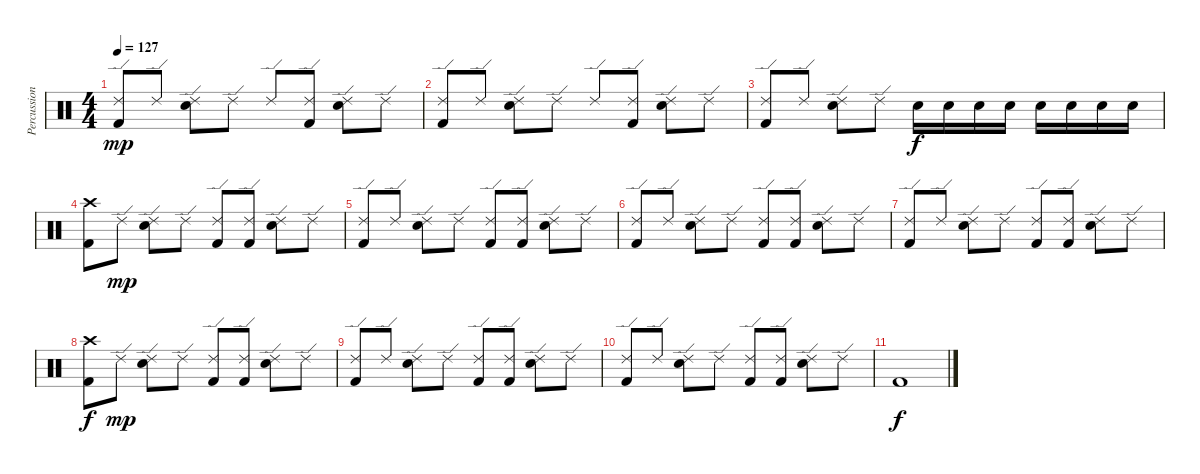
\track ("Percussion" "Percussion") {instrument percussion}
\staff {score}
\articulation defaults
\ts (4 4)
\tempo 127
\clef neutral
\ks c
("Ride (edge) 2" "Kick (hit) 2").8{dy mp} "Ride (edge) 2".8 ("Ride (edge) 2" "Snare (hit) 2").8 "Ride (edge) 2".8 "Ride (edge) 2".8 ("Ride (edge) 2" "Kick (hit) 2").8 ("Ride (edge) 2" "Snare (hit) 2").8 "Ride (edge) 2".8 |
("Ride (edge) 2" "Kick (hit) 2").8 "Ride (edge) 2".8 ("Ride (edge) 2" "Snare (hit) 2").8 "Ride (edge) 2".8 "Ride (edge) 2".8 ("Ride (edge) 2" "Kick (hit) 2").8 ("Ride (edge) 2" "Snare (hit) 2").8 "Ride (edge) 2".8 |
("Ride (edge) 2" "Kick (hit) 2").8 "Ride (edge) 2".8 ("Ride (edge) 2" "Snare (hit) 2").8 "Ride (edge) 2".8 "Snare (hit) 2".16{dy f} "Snare (hit) 2".16 "Snare (hit) 2".16 "Snare (hit) 2".16 "Snare (hit) 2".16 "Snare (hit) 2".16 "Snare (hit) 2".16 "Snare (hit) 2".16 |
("Crash high (hit)" "Kick (hit) 2").8 "Ride (edge) 2".8{dy mp} ("Ride (edge) 2" "Snare (hit) 2").8 "Ride (edge) 2".8 ("Ride (edge) 2" "Kick (hit) 2").8 ("Ride (edge) 2" "Kick (hit) 2").8 ("Ride (edge) 2" "Snare (hit) 2").8 "Ride (edge) 2".8 |
("Ride (edge) 2" "Kick (hit) 2").8 "Ride (edge) 2".8 ("Ride (edge) 2" "Snare (hit) 2").8 "Ride (edge) 2".8 ("Ride (edge) 2" "Kick (hit) 2").8 ("Ride (edge) 2" "Kick (hit) 2").8 ("Ride (edge) 2" "Snare (hit) 2").8 "Ride (edge) 2".8 |
("Ride (edge) 2" "Kick (hit) 2").8 "Ride (edge) 2".8 ("Ride (edge) 2" "Snare (hit) 2").8 "Ride (edge) 2".8 ("Ride (edge) 2" "Kick (hit) 2").8 ("Ride (edge) 2" "Kick (hit) 2").8 ("Ride (edge) 2" "Snare (hit) 2").8 "Ride (edge) 2".8 |
("Ride (edge) 2" "Kick (hit) 2").8 "Ride (edge) 2".8 ("Ride (edge) 2" "Snare (hit) 2").8 "Ride (edge) 2".8 ("Ride (edge) 2" "Kick (hit) 2").8 ("Ride (edge) 2" "Kick (hit) 2").8 ("Ride (edge) 2" "Snare (hit) 2").8 "Ride (edge) 2".8 |
("Crash high (hit)" "Kick (hit) 2").8{dy f} "Ride (edge) 2".8{dy mp} ("Ride (edge) 2" "Snare (hit) 2").8 "Ride (edge) 2".8 ("Ride (edge) 2" "Kick (hit) 2").8 ("Ride (edge) 2" "Kick (hit) 2").8 ("Ride (edge) 2" "Snare (hit) 2").8 "Ride (edge) 2".8 |
("Ride (edge) 2" "Kick (hit) 2").8 "Ride (edge) 2".8 ("Ride (edge) 2" "Snare (hit) 2").8 "Ride (edge) 2".8 ("Ride (edge) 2" "Kick (hit) 2").8 ("Ride (edge) 2" "Kick (hit) 2").8 ("Ride (edge) 2" "Snare (hit) 2").8 "Ride (edge) 2".8 |
("Ride (edge) 2" "Kick (hit) 2").8 "Ride (edge) 2".8 ("Ride (edge) 2" "Snare (hit) 2").8 "Ride (edge) 2".8 ("Ride (edge) 2" "Kick (hit) 2").8 ("Ride (edge) 2" "Kick (hit) 2").8 ("Ride (edge) 2" "Snare (hit) 2").8 "Ride (edge) 2".8 |
"Kick (hit) 2".1{dy f}
